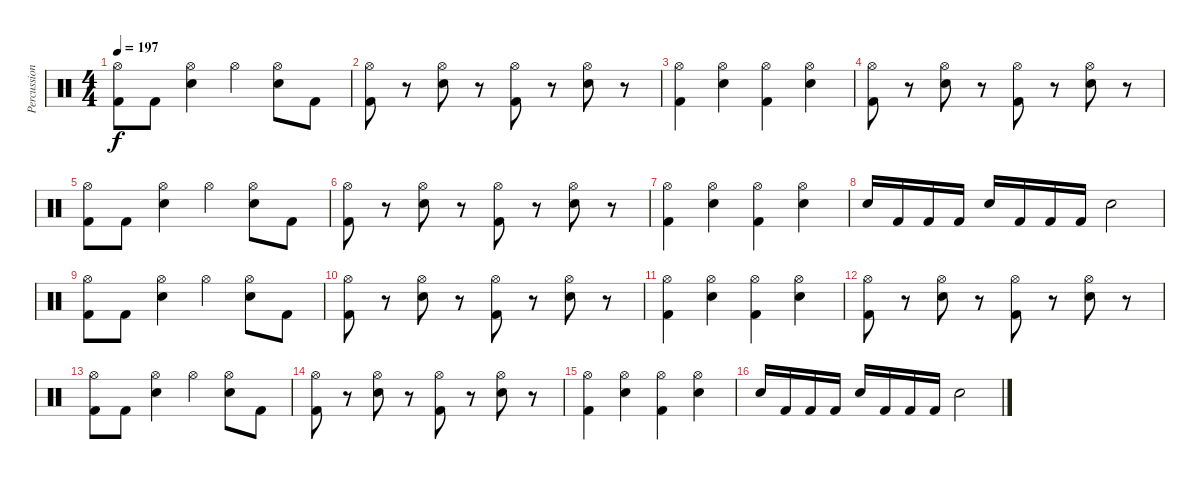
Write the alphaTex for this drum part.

\track ("Percussion" "Percussion") {instrument percussion}
\staff {score}
\articulation defaults
\ts (4 4)
\tempo 197
\clef neutral
\ks c
("Hi-Hat (open)" "Kick (hit) 2").8{dy f} "Kick (hit) 2".8 ("Hi-Hat (open)" "Electric Snare (hit)").4 "Hi-Hat (open)".4 ("Hi-Hat (open)" "Electric Snare (hit)").8 "Kick (hit) 2".8 |
("Hi-Hat (open)" "Kick (hit) 2").8 r.8 ("Hi-Hat (open)" "Electric Snare (hit)").8 r.8 ("Hi-Hat (open)" "Kick (hit) 2").8 r.8 ("Hi-Hat (open)" "Electric Snare (hit)").8 r.8 |
("Hi-Hat (open)" "Kick (hit) 2").4 ("Hi-Hat (open)" "Electric Snare (hit)").4 ("Hi-Hat (open)" "Kick (hit) 2").4 ("Hi-Hat (open)" "Electric Snare (hit)").4 |
("Hi-Hat (open)" "Kick (hit) 2").8 r.8 ("Hi-Hat (open)" "Electric Snare (hit)").8 r.8 ("Hi-Hat (open)" "Kick (hit) 2").8 r.8 ("Hi-Hat (open)" "Electric Snare (hit)").8 r.8 |
("Hi-Hat (open)" "Kick (hit) 2").8 "Kick (hit) 2".8 ("Hi-Hat (open)" "Electric Snare (hit)").4 "Hi-Hat (open)".4 ("Hi-Hat (open)" "Electric Snare (hit)").8 "Kick (hit) 2".8 |
("Hi-Hat (open)" "Kick (hit) 2").8 r.8 ("Hi-Hat (open)" "Electric Snare (hit)").8 r.8 ("Hi-Hat (open)" "Kick (hit) 2").8 r.8 ("Hi-Hat (open)" "Electric Snare (hit)").8 r.8 |
("Hi-Hat (open)" "Kick (hit) 2").4 ("Hi-Hat (open)" "Electric Snare (hit)").4 ("Hi-Hat (open)" "Kick (hit) 2").4 ("Hi-Hat (open)" "Electric Snare (hit)").4 |
"Electric Snare (hit)".16 "Kick (hit) 2".16 "Kick (hit) 2".16 "Kick (hit) 2".16 "Electric Snare (hit)".16 "Kick (hit) 2".16 "Kick (hit) 2".16 "Kick (hit) 2".16 "Electric Snare (hit)".2 |
("Hi-Hat (open)" "Kick (hit) 2").8 "Kick (hit) 2".8 ("Hi-Hat (open)" "Electric Snare (hit)").4 "Hi-Hat (open)".4 ("Hi-Hat (open)" "Electric Snare (hit)").8 "Kick (hit) 2".8 |
("Hi-Hat (open)" "Kick (hit) 2").8 r.8 ("Hi-Hat (open)" "Electric Snare (hit)").8 r.8 ("Hi-Hat (open)" "Kick (hit) 2").8 r.8 ("Hi-Hat (open)" "Electric Snare (hit)").8 r.8 |
("Hi-Hat (open)" "Kick (hit) 2").4 ("Hi-Hat (open)" "Electric Snare (hit)").4 ("Hi-Hat (open)" "Kick (hit) 2").4 ("Hi-Hat (open)" "Electric Snare (hit)").4 |
("Hi-Hat (open)" "Kick (hit) 2").8 r.8 ("Hi-Hat (open)" "Electric Snare (hit)").8 r.8 ("Hi-Hat (open)" "Kick (hit) 2").8 r.8 ("Hi-Hat (open)" "Electric Snare (hit)").8 r.8 |
("Hi-Hat (open)" "Kick (hit) 2").8 "Kick (hit) 2".8 ("Hi-Hat (open)" "Electric Snare (hit)").4 "Hi-Hat (open)".4 ("Hi-Hat (open)" "Electric Snare (hit)").8 "Kick (hit) 2".8 |
("Hi-Hat (open)" "Kick (hit) 2").8 r.8 ("Hi-Hat (open)" "Electric Snare (hit)").8 r.8 ("Hi-Hat (open)" "Kick (hit) 2").8 r.8 ("Hi-Hat (open)" "Electric Snare (hit)").8 r.8 |
("Hi-Hat (open)" "Kick (hit) 2").4 ("Hi-Hat (open)" "Electric Snare (hit)").4 ("Hi-Hat (open)" "Kick (hit) 2").4 ("Hi-Hat (open)" "Electric Snare (hit)").4 |
"Electric Snare (hit)".16 "Kick (hit) 2".16 "Kick (hit) 2".16 "Kick (hit) 2".16 "Electric Snare (hit)".16 "Kick (hit) 2".16 "Kick (hit) 2".16 "Kick (hit) 2".16 "Electric Snare (hit)".2
